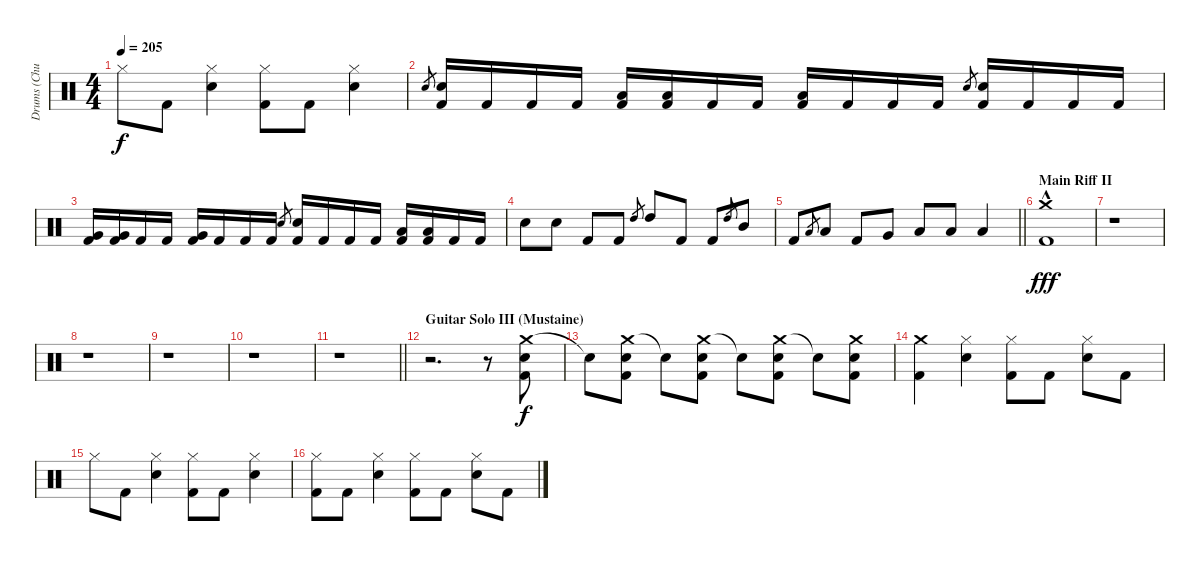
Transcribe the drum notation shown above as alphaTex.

\track ("Drums (Chuck Behler)" "Drums (Chu") {instrument percussion}
\staff {score}
\articulation defaults
\ts (4 4)
\tempo 205
\clef neutral
\ks c "Hi-Hat (closed)".8{dy f} "Kick (hit) 2".8
("Electric Snare (hit)" "Hi-Hat (closed)").4 ("Kick (hit) 2" "Hi-Hat (closed)").8 "Kick (hit) 2".8 ("Electric Snare (hit)" "Hi-Hat (closed)").4 |
"Electric Snare (hit)".8{gr} ("Electric Snare (hit)" "Kick (hit) 2").16 "Kick (hit) 2".16 "Kick (hit) 2".16 "Kick (hit) 2".16 ("Low Tom (hit)" "Kick (hit) 2").16 ("Low Tom (hit)" "Kick (hit) 2").16 "Kick (hit) 2".16 "Kick (hit) 2".16 ("Low Tom (hit)" "Kick (hit) 2").16 "Kick (hit) 2".16 "Kick (hit) 2".16 "Kick (hit) 2".16 "Electric Snare (hit)".8{gr} ("Electric Snare (hit)" "Kick (hit) 2").16 "Kick (hit) 2".16 "Kick (hit) 2".16 "Kick (hit) 2".16 |
("Very Low Tom (hit)" "Kick (hit) 2").16 ("Very Low Tom (hit)" "Kick (hit) 2").16 "Kick (hit) 2".16 "Kick (hit) 2".16 ("Very Low Tom (hit)" "Kick (hit) 2").16 "Kick (hit) 2".16 "Kick (hit) 2".16 "Kick (hit) 2".16 "Electric Snare (hit)".8{gr} ("Electric Snare (hit)" "Kick (hit) 2").16 "Kick (hit) 2".16 "Kick (hit) 2".16 "Kick (hit) 2".16 ("Low Floor Tom (hit)" "Kick (hit) 2").16 ("Low Floor Tom (hit)" "Kick (hit) 2").16 "Kick (hit) 2".16 "Kick (hit) 2".16 |
"Electric Snare (hit)".8 "Electric Snare (hit)".8 "Kick (hit) 2".8 "Kick (hit) 2".8 "High Tom (hit)".8{gr} "High Tom (hit)".8 "Kick (hit) 2".8 "Kick (hit) 2".8 "High Tom (hit)".8{gr} "Mid Tom (hit)".8 |
\barLineRight lightlight "Kick (hit) 2".8 "Low Tom (hit)".8{gr} "Low Tom (hit)".8 "Kick (hit) 2".8 "Very Low Tom (hit)".8 "Low Floor Tom (hit)".8 "Low Floor Tom (hit)".8 "Low Floor Tom (hit)".4
|
\section ("" "Main Riff II")
("Crash medium (hit)" "Kick (hit) 2"{hac}).1{dy fff} |
r.1 |
r.1 |
r.1 |
r.1 |
\barLineRight lightlight
r.1 |
\section ("" "Guitar Solo III (Mustaine)")
r.2{d} r.8 ("Crash medium (hit)" "Electric Snare (hit)" "Kick (hit) 2").8{dy f} |
"Snare (hit)"{t}.8 ("Crash medium (hit)" "Electric Snare (hit)" "Kick (hit) 2").8 "Snare (hit)"{t}.8 ("Crash medium (hit)" "Electric Snare (hit)" "Kick (hit) 2").8 "Snare (hit)"{t}.8 ("Crash medium (hit)" "Electric Snare (hit)" "Kick (hit) 2").8 "Snare (hit)"{t}.8 ("Crash medium (hit)" "Electric Snare (hit)" "Kick (hit) 2").8 |
("Crash medium (hit)" "Kick (hit) 2").4 ("Hi-Hat (closed)" "Electric Snare (hit)").4 ("Hi-Hat (closed)" "Kick (hit) 2").8 "Kick (hit) 2".8 ("Hi-Hat (closed)" "Electric Snare (hit)").8 "Kick (hit) 2".8 |
"Hi-Hat (closed)".8 "Kick (hit) 2".8 ("Hi-Hat (closed)" "Electric Snare (hit)").4 ("Hi-Hat (closed)" "Kick (hit) 2").8 "Kick (hit) 2".8 ("Hi-Hat (closed)" "Electric Snare (hit)").4 |
("Hi-Hat (closed)" "Kick (hit) 2").8 "Kick (hit) 2".8 ("Hi-Hat (closed)" "Electric Snare (hit)").4 ("Hi-Hat (closed)" "Kick (hit) 2").8 "Kick (hit) 2".8 ("Hi-Hat (closed)" "Electric Snare (hit)").8 "Kick (hit) 2".8
